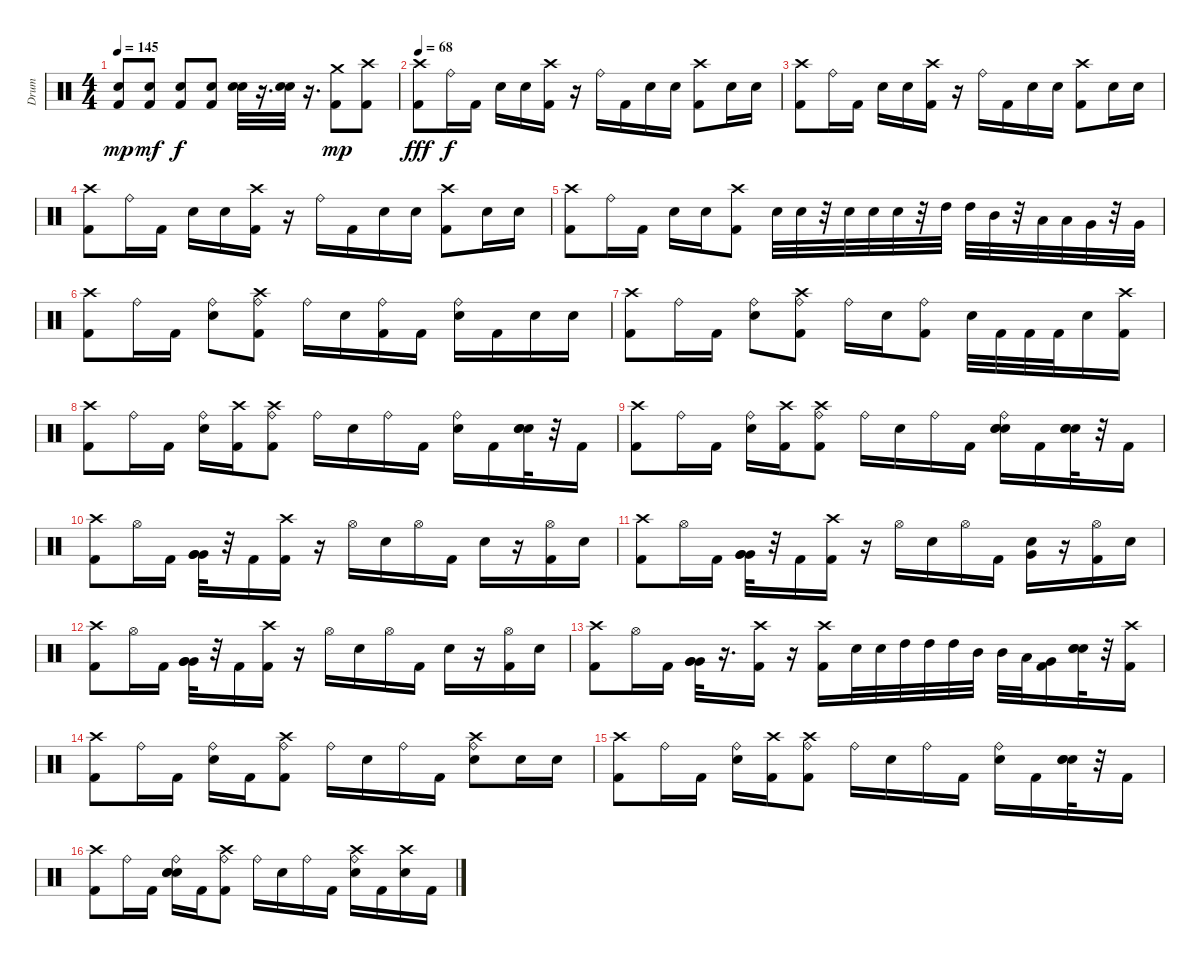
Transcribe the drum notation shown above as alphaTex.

\track ("Drum" "Drum") {instrument percussion}
\staff {score}
\articulation defaults
\ts (4 4)
\tempo 145
\clef neutral
\ks c
("Electric Snare (hit)" "Kick (hit) 2").8{dy mp} ("Electric Snare (hit)" "Kick (hit) 2").8{dy mf} ("Electric Snare (hit)" "Kick (hit) 2").8{dy f} ("Electric Snare (hit)" "Kick (hit) 2").8 ("Electric Snare (hit)" "Electric Snare (hit)").32 r.16{d} ("Electric Snare (hit)" "Electric Snare (hit)").32 r.16{d} ("Kick (hit) 2" "Crash medium (hit)").8{dy mp} ("Crash high (hit)" "Kick (hit) 2").8 |
\tempo 68
("Crash high (hit)" "Kick (hit) 2").8{dy fff volume 16} "Ride (bell)".16{dy f} "Kick (hit) 2".16 "Electric Snare (hit)".16 "Electric Snare (hit)".16 ("Kick (hit) 2" "Crash high (hit)").16 r.16 "Ride (bell)".16 "Kick (hit) 2".16 "Electric Snare (hit)".16 "Electric Snare (hit)".16 ("Crash high (hit)" "Kick (hit) 2").8 "Electric Snare (hit)".16 "Electric Snare (hit)".16 |
("Kick (hit) 2" "Crash high (hit)").8 "Ride (bell)".16 "Kick (hit) 2".16 "Electric Snare (hit)".16 "Electric Snare (hit)".16 ("Kick (hit) 2" "Crash high (hit)").16 r.16 "Ride (bell)".16 "Kick (hit) 2".16 "Electric Snare (hit)".16 "Electric Snare (hit)".16 ("Crash high (hit)" "Kick (hit) 2").8 "Electric Snare (hit)".16 "Electric Snare (hit)".16 |
("Crash high (hit)" "Kick (hit) 2").8 "Ride (bell)".16 "Kick (hit) 2".16 "Electric Snare (hit)".16 "Electric Snare (hit)".16 ("Kick (hit) 2" "Crash high (hit)").16 r.16 "Ride (bell)".16 "Kick (hit) 2".16 "Electric Snare (hit)".16 "Electric Snare (hit)".16 ("Crash high (hit)" "Kick (hit) 2").8 "Electric Snare (hit)".16 "Electric Snare (hit)".16 |
("Kick (hit) 2" "Crash high (hit)").8 "Ride (bell)".16 "Kick (hit) 2".16 "Electric Snare (hit)".16 "Electric Snare (hit)".16 ("Crash high (hit)" "Kick (hit) 2").8 "Electric Snare (hit)".32 "Electric Snare (hit)".32 r.32 "Electric Snare (hit)".32 "Electric Snare (hit)".32 "Electric Snare (hit)".32 r.32 "High Tom (hit)".32 "High Tom (hit)".32 "Mid Tom (hit)".32 r.32 "Low Tom (hit)".32 "Low Tom (hit)".32 "Very Low Tom (hit)".32 r.32 "Very Low Tom (hit)".32 |
("Crash high (hit)" "Kick (hit) 2").8 "Ride (bell)".16 "Kick (hit) 2".16 ("Ride (bell)" "Electric Snare (hit)").8 ("Ride (bell)" "Crash high (hit)" "Kick (hit) 2").8 "Ride (bell)".16 "Electric Snare (hit)".16 ("Ride (bell)" "Kick (hit) 2").16 "Kick (hit) 2".16 ("Electric Snare (hit)" "Ride (bell)").16 "Kick (hit) 2".16 "Electric Snare (hit)".16 "Electric Snare (hit)".16 |
("Kick (hit) 2" "Crash high (hit)").8 "Ride (bell)".16 "Kick (hit) 2".16 ("Ride (bell)" "Electric Snare (hit)").8 ("Ride (bell)" "Crash high (hit)" "Kick (hit) 2").8 "Ride (bell)".16 "Electric Snare (hit)".16 ("Ride (bell)" "Kick (hit) 2").8 "Electric Snare (hit)".32 "Kick (hit) 2".32 "Kick (hit) 2".32 "Kick (hit) 2".32 "Electric Snare (hit)".16 ("Crash high (hit)" "Kick (hit) 2").16 |
("Kick (hit) 2" "Crash high (hit)").8 "Ride (bell)".16 "Kick (hit) 2".16 ("Ride (bell)" "Electric Snare (hit)").16 ("Crash high (hit)" "Kick (hit) 2").16 ("Ride (bell)" "Crash high (hit)" "Kick (hit) 2").8 "Ride (bell)".16 "Electric Snare (hit)".16 "Ride (bell)".16 "Kick (hit) 2".16 ("Electric Snare (hit)" "Ride (bell)").16 "Kick (hit) 2".16 ("Electric Snare (hit)" "Electric Snare (hit)" "Electric Snare (hit)").32 r.32 "Kick (hit) 2".16 |
("Crash high (hit)" "Kick (hit) 2").8 "Ride (bell)".16 "Kick (hit) 2".16 ("Ride (bell)" "Electric Snare (hit)").16 ("Crash high (hit)" "Kick (hit) 2").16 ("Ride (bell)" "Crash high (hit)" "Kick (hit) 2").8 "Ride (bell)".16 "Electric Snare (hit)".16 "Ride (bell)".16 "Kick (hit) 2".16 ("Ride (bell)" "Electric Snare (hit)" "Electric Snare (hit)" "Electric Snare (hit)").16 "Kick (hit) 2".16 ("Electric Snare (hit)" "Electric Snare (hit)" "Electric Snare (hit)").32 r.32 "Kick (hit) 2".16 |
("Crash high (hit)" "Kick (hit) 2").8 "Hi-Hat (open)".16 "Kick (hit) 2".16 ("Very Low Tom (hit)" "Very Low Tom (hit)" "Very Low Tom (hit)").32 r.32 "Kick (hit) 2".16 ("Crash high (hit)" "Kick (hit) 2").16 r.16 "Hi-Hat (open)".16 "Electric Snare (hit)".16 "Hi-Hat (open)".16 "Kick (hit) 2".16 "Electric Snare (hit)".16 r.16 ("Kick (hit) 2" "Hi-Hat (open)").16 "Electric Snare (hit)".16 |
("Kick (hit) 2" "Crash high (hit)").8 "Hi-Hat (open)".16 "Kick (hit) 2".16 ("Very Low Tom (hit)" "Very Low Tom (hit)" "Very Low Tom (hit)").32 r.32 "Kick (hit) 2".16 ("Crash high (hit)" "Kick (hit) 2").16 r.16 "Hi-Hat (open)".16 "Electric Snare (hit)".16 "Hi-Hat (open)".16 "Kick (hit) 2".16 ("Electric Snare (hit)" "Very Low Tom (hit)").16 r.16 ("Kick (hit) 2" "Hi-Hat (open)").16 "Electric Snare (hit)".16 |
("Kick (hit) 2" "Crash high (hit)").8 "Hi-Hat (open)".16 "Kick (hit) 2".16 ("Very Low Tom (hit)" "Very Low Tom (hit)" "Very Low Tom (hit)").32 r.32 "Kick (hit) 2".16 ("Crash high (hit)" "Kick (hit) 2").16 r.16 "Hi-Hat (open)".16 "Electric Snare (hit)".16 "Hi-Hat (open)".16 "Kick (hit) 2".16 "Electric Snare (hit)".16 r.16 ("Kick (hit) 2" "Hi-Hat (open)").16 "Electric Snare (hit)".16 |
("Crash high (hit)" "Kick (hit) 2").8 "Hi-Hat (open)".16 "Kick (hit) 2".16 ("Very Low Tom (hit)" "Very Low Tom (hit)" "Very Low Tom (hit)").32 r.16{d} ("Crash high (hit)" "Kick (hit) 2").16 r.16 ("Crash high (hit)" "Kick (hit) 2").16 "Electric Snare (hit)".32 "Electric Snare (hit)".32 "High Tom (hit)".32 "High Tom (hit)".32 "High Tom (hit)".32 "Mid Tom (hit)".32 "Mid Tom (hit)".32 "Low Tom (hit)".32 ("Kick (hit) 2" "Very Low Tom (hit)").16 ("Electric Snare (hit)" "Electric Snare (hit)" "Electric Snare (hit)").32 r.32 ("Crash high (hit)" "Kick (hit) 2").16 |
("Kick (hit) 2" "Crash high (hit)").8 "Ride (bell)".16 "Kick (hit) 2".16 ("Ride (bell)" "Electric Snare (hit)").16 "Kick (hit) 2".16 ("Ride (bell)" "Crash high (hit)" "Kick (hit) 2").8 "Ride (bell)".16 "Electric Snare (hit)".16 "Ride (bell)".16 "Kick (hit) 2".16 ("Electric Snare (hit)" "Ride (bell)" "Crash high (hit)").8 "Electric Snare (hit)".16 "Electric Snare (hit)".16 |
("Kick (hit) 2" "Crash high (hit)").8 "Ride (bell)".16 "Kick (hit) 2".16 ("Ride (bell)" "Electric Snare (hit)").16 ("Crash high (hit)" "Kick (hit) 2").16 ("Ride (bell)" "Crash high (hit)" "Kick (hit) 2").8 "Ride (bell)".16 "Electric Snare (hit)".16 "Ride (bell)".16 "Kick (hit) 2".16 ("Electric Snare (hit)" "Ride (bell)").16 "Kick (hit) 2".16 ("Electric Snare (hit)" "Electric Snare (hit)" "Electric Snare (hit)").32 r.32 "Kick (hit) 2".16 |
("Kick (hit) 2" "Crash high (hit)").8 "Ride (bell)".16 "Kick (hit) 2".16 ("Ride (bell)" "Electric Snare (hit)" "Electric Snare (hit)" "Electric Snare (hit)").16 "Kick (hit) 2".16 ("Ride (bell)" "Crash high (hit)" "Kick (hit) 2").8 "Ride (bell)".16 "Electric Snare (hit)".16 "Ride (bell)".16 "Kick (hit) 2".16 ("Electric Snare (hit)" "Ride (bell)" "Crash high (hit)").16 "Kick (hit) 2".16 ("Electric Snare (hit)" "Crash high (hit)").16 "Kick (hit) 2".16
